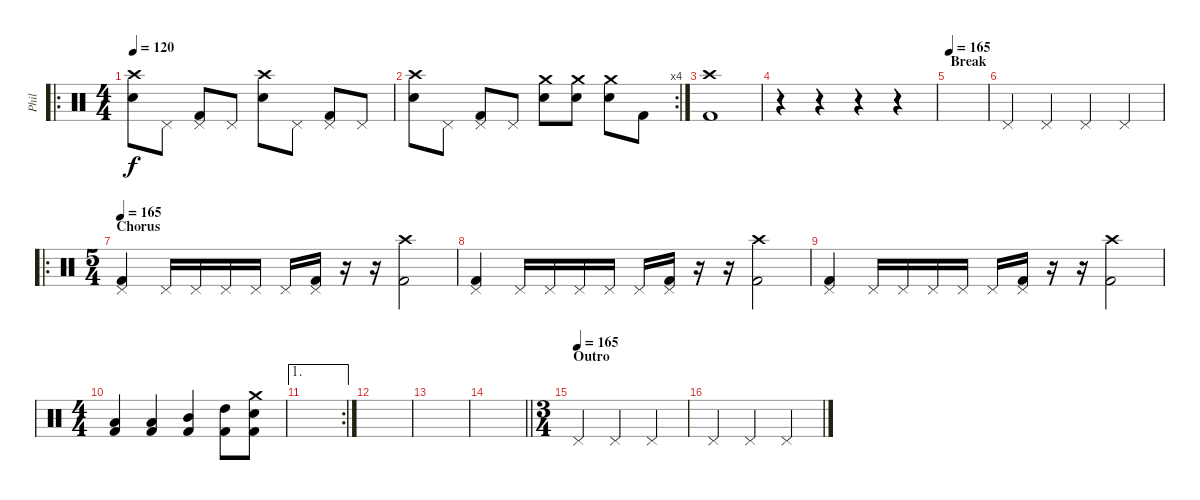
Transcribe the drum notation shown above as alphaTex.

\track ("Phil" "Phil") {instrument percussion}
\staff {score}
\articulation defaults
\ro
\ts (4 4)
\tempo 120
\clef neutral
\ks c
("Crash high (hit)" "Electric Snare (hit)").8{dy f} "Pedal Hi-Hat (hit)".8 ("Pedal Hi-Hat (hit)" "Kick (hit) 2").8 "Pedal Hi-Hat (hit)".8 ("Crash high (hit)" "Electric Snare (hit)").8 "Pedal Hi-Hat (hit)".8 ("Pedal Hi-Hat (hit)" "Kick (hit) 2").8 "Pedal Hi-Hat (hit)".8 |
\rc 4
("Crash high (hit)" "Electric Snare (hit)").8 "Pedal Hi-Hat (hit)".8 ("Pedal Hi-Hat (hit)" "Kick (hit) 2").8 "Pedal Hi-Hat (hit)".8 ("Crash medium (hit)" "Electric Snare (hit)").8 ("Crash medium (hit)" "Electric Snare (hit)").8 ("Crash medium (hit)" "Electric Snare (hit)").8 "Kick (hit) 2".8 |
("Crash high (hit)" "Kick (hit) 2").1 |
r.4 r.4 r.4 r.4 |
\section ("" "Break")
\tempo 165
|
"Pedal Hi-Hat (hit)".4 "Pedal Hi-Hat (hit)".4 "Pedal Hi-Hat (hit)".4 "Pedal Hi-Hat (hit)".4 |
\ro
\ts (5 4)
\section ("" "Chorus")
\tempo 165
("Pedal Hi-Hat (hit)" "Kick (hit) 2").4 "Pedal Hi-Hat (hit)".16 "Pedal Hi-Hat (hit)".16 "Pedal Hi-Hat (hit)".16 "Pedal Hi-Hat (hit)".16 "Pedal Hi-Hat (hit)".16 ("Pedal Hi-Hat (hit)" "Kick (hit) 2").16 r.16 r.16 ("Crash high (hit)" "Kick (hit) 2").2 |
("Pedal Hi-Hat (hit)" "Kick (hit) 2").4 "Pedal Hi-Hat (hit)".16 "Pedal Hi-Hat (hit)".16 "Pedal Hi-Hat (hit)".16 "Pedal Hi-Hat (hit)".16 "Pedal Hi-Hat (hit)".16 ("Pedal Hi-Hat (hit)" "Kick (hit) 2").16 r.16 r.16 ("Crash high (hit)" "Kick (hit) 2").2 |
("Pedal Hi-Hat (hit)" "Kick (hit) 2").4 "Pedal Hi-Hat (hit)".16 "Pedal Hi-Hat (hit)".16 "Pedal Hi-Hat (hit)".16 "Pedal Hi-Hat (hit)".16 "Pedal Hi-Hat (hit)".16 ("Pedal Hi-Hat (hit)" "Kick (hit) 2").16 r.16 r.16 ("Crash high (hit)" "Kick (hit) 2").2 |
\ts (4 4)
("Low Tom (hit)" "Kick (hit) 2").4 ("Low Tom (hit)" "Kick (hit) 2").4 ("Mid Tom (hit)" "Kick (hit) 2").4 ("High Tom (hit)" "Kick (hit) 2").8 ("Crash medium (hit)" "Electric Snare (hit)" "Kick (hit) 2").8 |
\ae 1
\rc 2
|
|
|
\barLineRight lightlight
|
\ts (3 4)
\section ("" "Outro")
\tempo (165)
"Pedal Hi-Hat (hit)".4 "Pedal Hi-Hat (hit)".4 "Pedal Hi-Hat (hit)".4 |
"Pedal Hi-Hat (hit)".4 "Pedal Hi-Hat (hit)".4 "Pedal Hi-Hat (hit)".4
